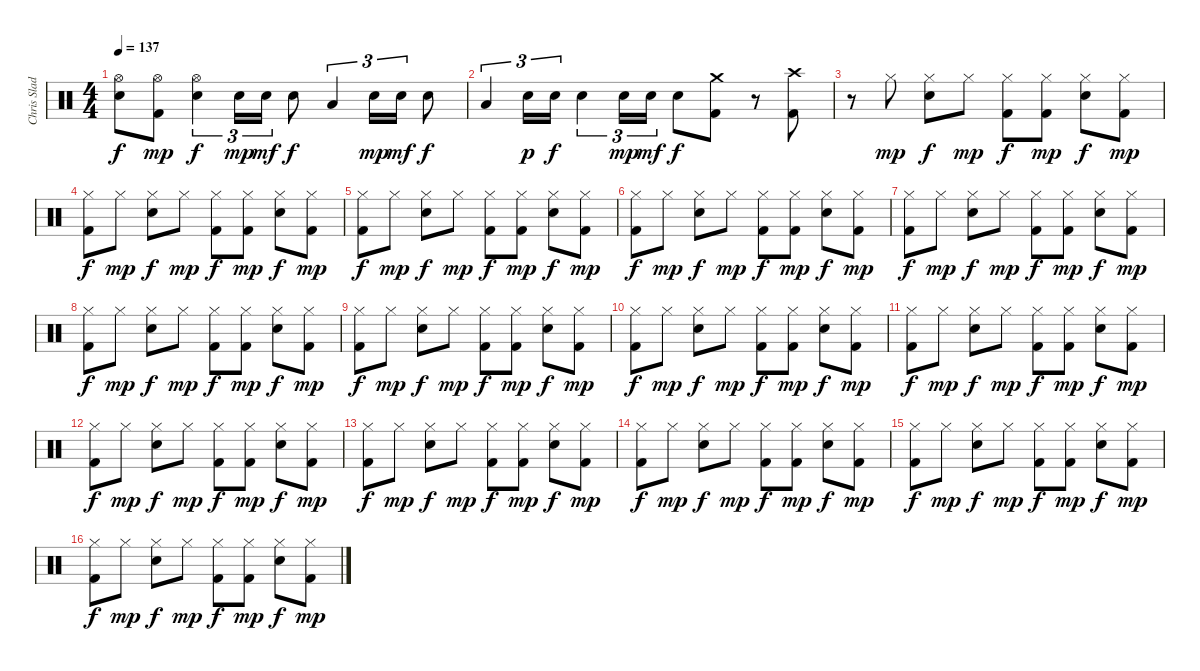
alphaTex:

\track ("Chris Slade / Drums" "Chris Slad") {instrument percussion}
\staff {score}
\articulation defaults
\ts (4 4)
\tempo 137
\clef neutral
\ks c
("Hi-Hat (open)" "Electric Snare (hit)").8{dy f} ("Hi-Hat (open)" "Kick (hit) 2").8{dy mp} ("Hi-Hat (open)" "Electric Snare (hit)").4{tu (3 2) dy f} "Electric Snare (hit)".16{tu (3 2) dy mp} "Electric Snare (hit)".16{tu (3 2) dy mf} "Electric Snare (hit)".8{dy f} "Low Tom (hit)".4{tu (3 2)} "Electric Snare (hit)".16{tu (3 2) dy mp} "Electric Snare (hit)".16{tu (3 2) dy mf} "Electric Snare (hit)".8{dy f} |
"Low Tom (hit)".4{tu (3 2)} "Electric Snare (hit)".16{tu (3 2) dy p} "Electric Snare (hit)".16{tu (3 2) dy f} "Electric Snare (hit)".4{tu (3 2)} "Electric Snare (hit)".16{tu (3 2) dy mp} "Electric Snare (hit)".16{tu (3 2) dy mf} "Electric Snare (hit)".8{dy f} ("Crash medium (hit)" "Kick (hit) 2").8 r.8 ("Crash high (hit)" "Kick (hit) 2").8 |
r.8 "Hi-Hat (closed)".8{dy mp} ("Hi-Hat (closed)" "Electric Snare (hit)").8{dy f} "Hi-Hat (closed)".8{dy mp} ("Hi-Hat (closed)" "Kick (hit) 2").8{dy f} ("Hi-Hat (closed)" "Kick (hit) 2").8{dy mp} ("Hi-Hat (closed)" "Electric Snare (hit)").8{dy f} ("Hi-Hat (closed)" "Kick (hit) 2").8{dy mp} |
("Hi-Hat (closed)" "Kick (hit) 2").8{dy f} "Hi-Hat (closed)".8{dy mp} ("Hi-Hat (closed)" "Electric Snare (hit)").8{dy f} "Hi-Hat (closed)".8{dy mp} ("Hi-Hat (closed)" "Kick (hit) 2").8{dy f} ("Hi-Hat (closed)" "Kick (hit) 2").8{dy mp} ("Hi-Hat (closed)" "Electric Snare (hit)").8{dy f} ("Hi-Hat (closed)" "Kick (hit) 2").8{dy mp} |
("Hi-Hat (closed)" "Kick (hit) 2").8{dy f} "Hi-Hat (closed)".8{dy mp} ("Hi-Hat (closed)" "Electric Snare (hit)").8{dy f} "Hi-Hat (closed)".8{dy mp} ("Hi-Hat (closed)" "Kick (hit) 2").8{dy f} ("Hi-Hat (closed)" "Kick (hit) 2").8{dy mp} ("Hi-Hat (closed)" "Electric Snare (hit)").8{dy f} ("Hi-Hat (closed)" "Kick (hit) 2").8{dy mp} |
("Hi-Hat (closed)" "Kick (hit) 2").8{dy f} "Hi-Hat (closed)".8{dy mp} ("Hi-Hat (closed)" "Electric Snare (hit)").8{dy f} "Hi-Hat (closed)".8{dy mp} ("Hi-Hat (closed)" "Kick (hit) 2").8{dy f} ("Hi-Hat (closed)" "Kick (hit) 2").8{dy mp} ("Hi-Hat (closed)" "Electric Snare (hit)").8{dy f} ("Hi-Hat (closed)" "Kick (hit) 2").8{dy mp} |
("Hi-Hat (closed)" "Kick (hit) 2").8{dy f} "Hi-Hat (closed)".8{dy mp} ("Hi-Hat (closed)" "Electric Snare (hit)").8{dy f} "Hi-Hat (closed)".8{dy mp} ("Hi-Hat (closed)" "Kick (hit) 2").8{dy f} ("Hi-Hat (closed)" "Kick (hit) 2").8{dy mp} ("Hi-Hat (closed)" "Electric Snare (hit)").8{dy f} ("Hi-Hat (closed)" "Kick (hit) 2").8{dy mp} |
("Hi-Hat (closed)" "Kick (hit) 2").8{dy f} "Hi-Hat (closed)".8{dy mp} ("Hi-Hat (closed)" "Electric Snare (hit)").8{dy f} "Hi-Hat (closed)".8{dy mp} ("Hi-Hat (closed)" "Kick (hit) 2").8{dy f} ("Hi-Hat (closed)" "Kick (hit) 2").8{dy mp} ("Hi-Hat (closed)" "Electric Snare (hit)").8{dy f} ("Hi-Hat (closed)" "Kick (hit) 2").8{dy mp} |
("Hi-Hat (closed)" "Kick (hit) 2").8{dy f} "Hi-Hat (closed)".8{dy mp} ("Hi-Hat (closed)" "Electric Snare (hit)").8{dy f} "Hi-Hat (closed)".8{dy mp} ("Hi-Hat (closed)" "Kick (hit) 2").8{dy f} ("Hi-Hat (closed)" "Kick (hit) 2").8{dy mp} ("Hi-Hat (closed)" "Electric Snare (hit)").8{dy f} ("Hi-Hat (closed)" "Kick (hit) 2").8{dy mp} |
("Hi-Hat (closed)" "Kick (hit) 2").8{dy f} "Hi-Hat (closed)".8{dy mp} ("Hi-Hat (closed)" "Electric Snare (hit)").8{dy f} "Hi-Hat (closed)".8{dy mp} ("Hi-Hat (closed)" "Kick (hit) 2").8{dy f} ("Hi-Hat (closed)" "Kick (hit) 2").8{dy mp} ("Hi-Hat (closed)" "Electric Snare (hit)").8{dy f} ("Hi-Hat (closed)" "Kick (hit) 2").8{dy mp} |
("Hi-Hat (closed)" "Kick (hit) 2").8{dy f} "Hi-Hat (closed)".8{dy mp} ("Hi-Hat (closed)" "Electric Snare (hit)").8{dy f} "Hi-Hat (closed)".8{dy mp} ("Hi-Hat (closed)" "Kick (hit) 2").8{dy f} ("Hi-Hat (closed)" "Kick (hit) 2").8{dy mp} ("Hi-Hat (closed)" "Electric Snare (hit)").8{dy f} ("Hi-Hat (closed)" "Kick (hit) 2").8{dy mp} |
("Hi-Hat (closed)" "Kick (hit) 2").8{dy f} "Hi-Hat (closed)".8{dy mp} ("Hi-Hat (closed)" "Electric Snare (hit)").8{dy f} "Hi-Hat (closed)".8{dy mp} ("Hi-Hat (closed)" "Kick (hit) 2").8{dy f} ("Hi-Hat (closed)" "Kick (hit) 2").8{dy mp} ("Hi-Hat (closed)" "Electric Snare (hit)").8{dy f} ("Hi-Hat (closed)" "Kick (hit) 2").8{dy mp} |
("Hi-Hat (closed)" "Kick (hit) 2").8{dy f} "Hi-Hat (closed)".8{dy mp} ("Hi-Hat (closed)" "Electric Snare (hit)").8{dy f} "Hi-Hat (closed)".8{dy mp} ("Hi-Hat (closed)" "Kick (hit) 2").8{dy f} ("Hi-Hat (closed)" "Kick (hit) 2").8{dy mp} ("Hi-Hat (closed)" "Electric Snare (hit)").8{dy f} ("Hi-Hat (closed)" "Kick (hit) 2").8{dy mp} |
("Hi-Hat (closed)" "Kick (hit) 2").8{dy f} "Hi-Hat (closed)".8{dy mp} ("Hi-Hat (closed)" "Electric Snare (hit)").8{dy f} "Hi-Hat (closed)".8{dy mp} ("Hi-Hat (closed)" "Kick (hit) 2").8{dy f} ("Hi-Hat (closed)" "Kick (hit) 2").8{dy mp} ("Hi-Hat (closed)" "Electric Snare (hit)").8{dy f} ("Hi-Hat (closed)" "Kick (hit) 2").8{dy mp} |
("Hi-Hat (closed)" "Kick (hit) 2").8{dy f} "Hi-Hat (closed)".8{dy mp} ("Hi-Hat (closed)" "Electric Snare (hit)").8{dy f} "Hi-Hat (closed)".8{dy mp} ("Hi-Hat (closed)" "Kick (hit) 2").8{dy f} ("Hi-Hat (closed)" "Kick (hit) 2").8{dy mp} ("Hi-Hat (closed)" "Electric Snare (hit)").8{dy f} ("Hi-Hat (closed)" "Kick (hit) 2").8{dy mp} |
("Hi-Hat (closed)" "Kick (hit) 2").8{dy f} "Hi-Hat (closed)".8{dy mp} ("Hi-Hat (closed)" "Electric Snare (hit)").8{dy f} "Hi-Hat (closed)".8{dy mp} ("Hi-Hat (closed)" "Kick (hit) 2").8{dy f} ("Hi-Hat (closed)" "Kick (hit) 2").8{dy mp} ("Hi-Hat (closed)" "Electric Snare (hit)").8{dy f} ("Hi-Hat (closed)" "Kick (hit) 2").8{dy mp}
